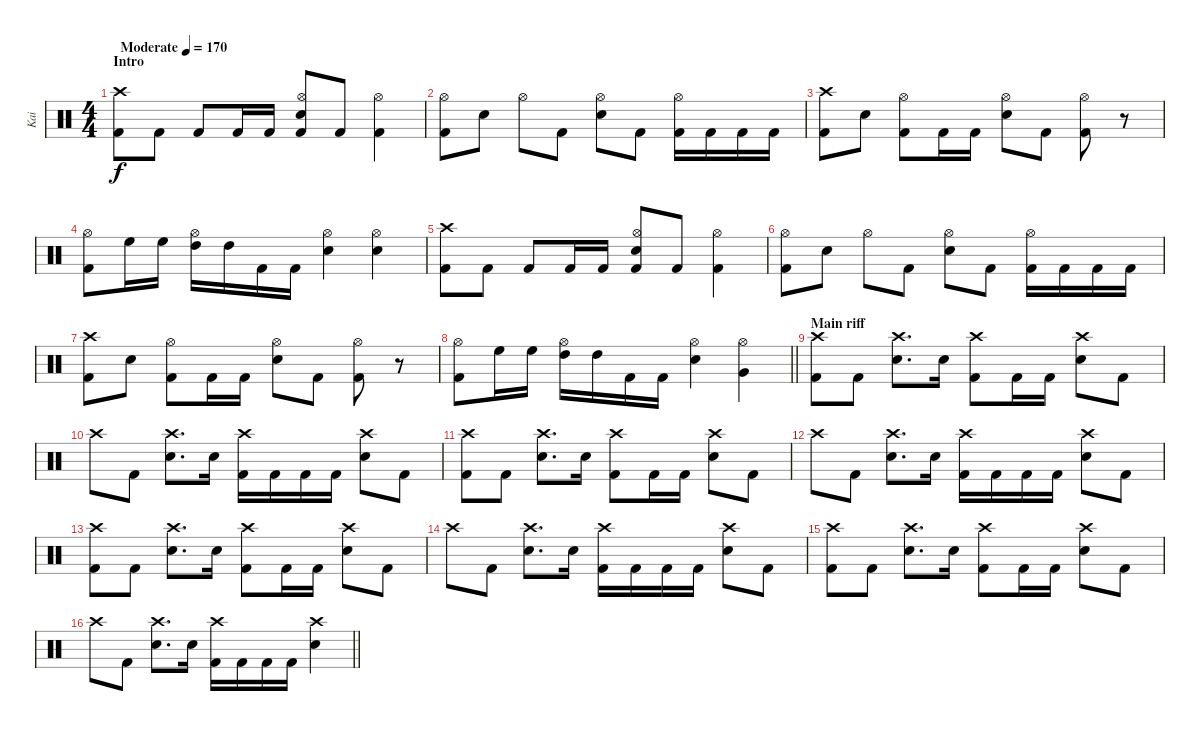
\track ("Kai" "Kai") {instrument percussion}
\staff {score}
\articulation defaults
\ts (4 4)
\section ("" "Intro")
\tempo (170 "Moderate")
\clef neutral
\ks c
("Crash high (hit)" "Kick (hit) 2").8{dy f} "Kick (hit) 2".8 "Kick (hit) 2".8 "Kick (hit) 2".16 "Kick (hit) 2".16 ("Hi-Hat (open)" "Electric Snare (hit)" "Kick (hit) 2").8 "Kick (hit) 2".8 ("Hi-Hat (open)" "Kick (hit) 2").4 |
("Hi-Hat (open)" "Kick (hit) 2").8 "Electric Snare (hit)".8 "Hi-Hat (open)".8 "Kick (hit) 2".8 ("Hi-Hat (open)" "Electric Snare (hit)").8 "Kick (hit) 2".8 ("Hi-Hat (open)" "Kick (hit) 2").16 "Kick (hit) 2".16 "Kick (hit) 2".16 "Kick (hit) 2".16 |
("Crash high (hit)" "Kick (hit) 2").8 "Electric Snare (hit)".8 ("Hi-Hat (open)" "Kick (hit) 2").8 "Kick (hit) 2".16 "Kick (hit) 2".16 ("Hi-Hat (open)" "Electric Snare (hit)").8 "Kick (hit) 2".8 ("Hi-Hat (open)" "Kick (hit) 2").8 r.8 |
("Hi-Hat (open)" "Kick (hit) 2").8 "High Floor Tom (hit)".16 "High Floor Tom (hit)".16 ("Hi-Hat (open)" "High Tom (hit)").16 "High Tom (hit)".16 "Kick (hit) 2".16 "Kick (hit) 2".16 ("Hi-Hat (open)" "Electric Snare (hit)").4 ("Hi-Hat (open)" "Electric Snare (hit)").4 |
("Crash high (hit)" "Kick (hit) 2").8 "Kick (hit) 2".8 "Kick (hit) 2".8 "Kick (hit) 2".16 "Kick (hit) 2".16 ("Hi-Hat (open)" "Electric Snare (hit)" "Kick (hit) 2").8 "Kick (hit) 2".8 ("Hi-Hat (open)" "Kick (hit) 2").4 |
("Hi-Hat (open)" "Kick (hit) 2").8 "Electric Snare (hit)".8 "Hi-Hat (open)".8 "Kick (hit) 2".8 ("Hi-Hat (open)" "Electric Snare (hit)").8 "Kick (hit) 2".8 ("Hi-Hat (open)" "Kick (hit) 2").16 "Kick (hit) 2".16 "Kick (hit) 2".16 "Kick (hit) 2".16 |
("Crash high (hit)" "Kick (hit) 2").8 "Electric Snare (hit)".8 ("Hi-Hat (open)" "Kick (hit) 2").8 "Kick (hit) 2".16 "Kick (hit) 2".16 ("Hi-Hat (open)" "Electric Snare (hit)").8 "Kick (hit) 2".8 ("Hi-Hat (open)" "Kick (hit) 2").8 r.8 |
\barLineRight lightlight
("Hi-Hat (open)" "Kick (hit) 2").8 "High Floor Tom (hit)".16 "High Floor Tom (hit)".16 ("Hi-Hat (open)" "High Tom (hit)").16 "High Tom (hit)".16 "Kick (hit) 2".16 "Kick (hit) 2".16 ("Hi-Hat (open)" "Electric Snare (hit)").4 ("Hi-Hat (open)" "Very Low Tom (hit)").4 |
\section ("" "Main riff")
("Crash high (hit)" "Kick (hit) 2").8 "Kick (hit) 2".8 ("Crash high (hit)" "Electric Snare (hit)").8{d} "Electric Snare (hit)".16 ("Crash high (hit)" "Kick (hit) 2").8 "Kick (hit) 2".16 "Kick (hit) 2".16 ("Crash high (hit)" "Electric Snare (hit)").8 "Kick (hit) 2".8 |
"Crash high (hit)".8 "Kick (hit) 2".8 ("Crash high (hit)" "Electric Snare (hit)").8{d} "Electric Snare (hit)".16 ("Crash high (hit)" "Kick (hit) 2").16 "Kick (hit) 2".16 "Kick (hit) 2".16 "Kick (hit) 2".16 ("Crash high (hit)" "Electric Snare (hit)").8 "Kick (hit) 2".8 |
("Crash high (hit)" "Kick (hit) 2").8 "Kick (hit) 2".8 ("Crash high (hit)" "Electric Snare (hit)").8{d} "Electric Snare (hit)".16 ("Crash high (hit)" "Kick (hit) 2").8 "Kick (hit) 2".16 "Kick (hit) 2".16 ("Crash high (hit)" "Electric Snare (hit)").8 "Kick (hit) 2".8 |
"Crash high (hit)".8 "Kick (hit) 2".8 ("Crash high (hit)" "Electric Snare (hit)").8{d} "Electric Snare (hit)".16 ("Crash high (hit)" "Kick (hit) 2").16 "Kick (hit) 2".16 "Kick (hit) 2".16 "Kick (hit) 2".16 ("Crash high (hit)" "Electric Snare (hit)").8 "Kick (hit) 2".8 |
("Crash high (hit)" "Kick (hit) 2").8 "Kick (hit) 2".8 ("Crash high (hit)" "Electric Snare (hit)").8{d} "Electric Snare (hit)".16 ("Crash high (hit)" "Kick (hit) 2").8 "Kick (hit) 2".16 "Kick (hit) 2".16 ("Crash high (hit)" "Electric Snare (hit)").8 "Kick (hit) 2".8 |
"Crash high (hit)".8 "Kick (hit) 2".8 ("Crash high (hit)" "Electric Snare (hit)").8{d} "Electric Snare (hit)".16 ("Crash high (hit)" "Kick (hit) 2").16 "Kick (hit) 2".16 "Kick (hit) 2".16 "Kick (hit) 2".16 ("Crash high (hit)" "Electric Snare (hit)").8 "Kick (hit) 2".8 |
("Crash high (hit)" "Kick (hit) 2").8 "Kick (hit) 2".8 ("Crash high (hit)" "Electric Snare (hit)").8{d} "Electric Snare (hit)".16 ("Crash high (hit)" "Kick (hit) 2").8 "Kick (hit) 2".16 "Kick (hit) 2".16 ("Crash high (hit)" "Electric Snare (hit)").8 "Kick (hit) 2".8 |
\barLineRight lightlight "Crash high (hit)".8 "Kick (hit) 2".8
("Crash high (hit)" "Electric Snare (hit)").8{d} "Electric Snare (hit)".16 ("Crash high (hit)" "Kick (hit) 2").16 "Kick (hit) 2".16 "Kick (hit) 2".16 "Kick (hit) 2".16 ("Crash high (hit)" "Electric Snare (hit)").4
